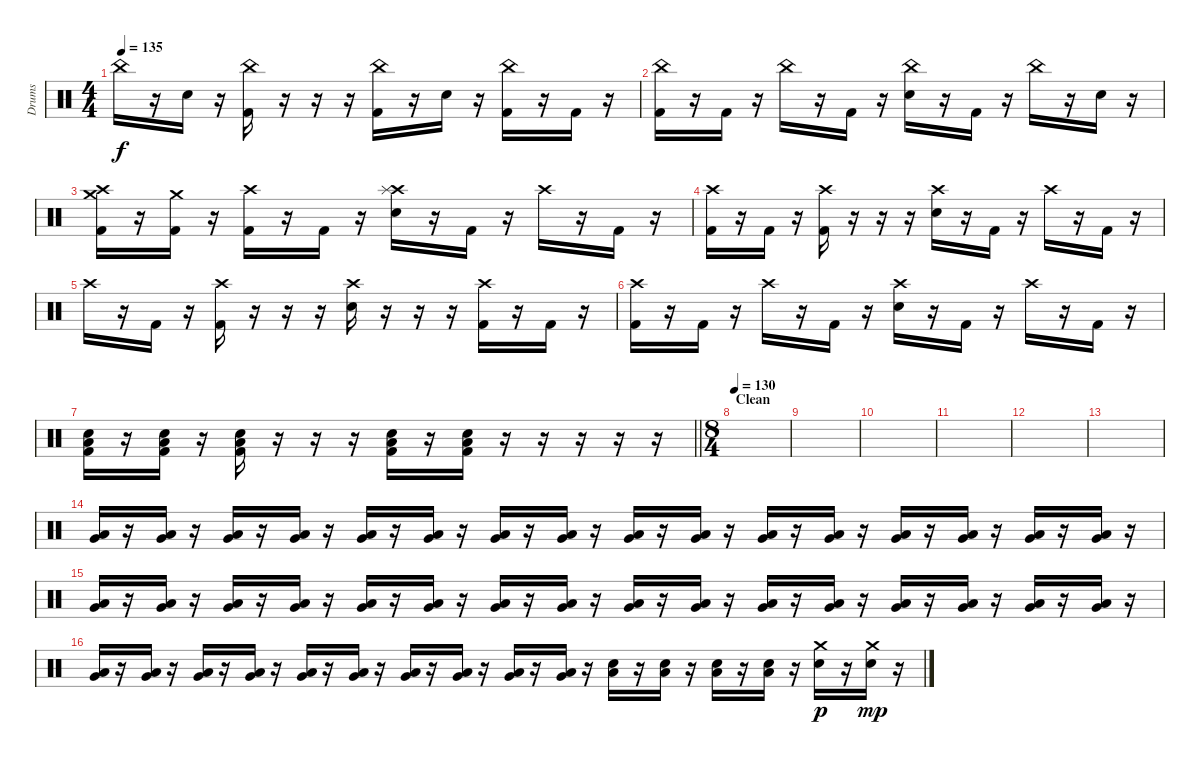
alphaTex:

\track ("Drums" "Drums") {instrument percussion}
\staff {score}
\articulation defaults
\ts (4 4)
\tempo 135
\clef neutral
\ks c "China (hit)".16{dy f}
r.16 "Snare (hit) 2".16 r.16 ("China (hit)" "Kick (hit) 2").16 r.16 r.16 r.16 ("China (hit)" "Kick (hit) 2").16 r.16 "Snare (hit) 2".16 r.16 ("China (hit)" "Kick (hit) 2").16 r.16 "Kick (hit) 2".16 r.16 |
("China (hit)" "Kick (hit) 2").16 r.16 "Kick (hit) 2".16 r.16 "China (hit)".16 r.16 "Kick (hit) 2".16 r.16 ("China (hit)" "Snare (hit) 2").16 r.16 "Kick (hit) 2".16 r.16 "China (hit)".16 r.16 "Snare (hit) 2".16 r.16 |
("Crash high (hit)" "Crash medium (hit)" "Kick (hit) 2").16 r.16 ("Crash medium (hit)" "Kick (hit) 2").16 r.16 ("Crash high (hit)" "Kick (hit) 2").16 r.16 "Kick (hit) 2".16 r.16 ("Crash high (hit)" "Splash (hit)" "Snare (hit) 2").16 r.16 "Kick (hit) 2".16 r.16 "Crash high (hit)".16 r.16 "Kick (hit) 2".16 r.16 |
("Crash high (hit)" "Kick (hit) 2").16 r.16 "Kick (hit) 2".16 r.16 ("Crash high (hit)" "Kick (hit) 2").16 r.16 r.16 r.16 ("Crash high (hit)" "Snare (hit) 2").16 r.16 "Kick (hit) 2".16 r.16 "Crash high (hit)".16 r.16 "Kick (hit) 2".16 r.16 |
"Crash high (hit)".16 r.16 "Kick (hit) 2".16 r.16 ("Crash high (hit)" "Kick (hit) 2").16 r.16 r.16 r.16 ("Crash high (hit)" "Snare (hit) 2").16 r.16 r.16 r.16 ("Crash high (hit)" "Kick (hit) 2").16 r.16 "Kick (hit) 2".16 r.16 |
("Crash high (hit)" "Kick (hit) 2").16 r.16 "Kick (hit) 2".16 r.16 "Crash high (hit)".16 r.16 "Kick (hit) 2".16 r.16 ("Crash high (hit)" "Snare (hit) 2").16 r.16 "Kick (hit) 2".16 r.16 "Crash high (hit)".16 r.16 "Kick (hit) 2".16 r.16 |
\barLineRight lightlight
("Low Floor Tom (hit)" "Snare (hit) 2" "Kick (hit) 2").16 r.16 ("Low Floor Tom (hit)" "Snare (hit) 2" "Kick (hit) 2").16 r.16 ("Low Floor Tom (hit)" "Snare (hit) 2" "Kick (hit) 2").16 r.16 r.16 r.16 ("Low Floor Tom (hit)" "Snare (hit) 2" "Kick (hit) 2").16 r.16 ("Low Floor Tom (hit)" "Snare (hit) 2" "Kick (hit) 2").16 r.16 r.16 r.16 r.16 r.16 |
\ts (8 4)
\section ("" "Clean")
\tempo 130
|
|
|
|
|
|
("Very Low Tom (hit)" "Low Floor Tom (hit)").16{volume 8} r.16 ("Very Low Tom (hit)" "Low Floor Tom (hit)").16 r.16 ("Very Low Tom (hit)" "Low Floor Tom (hit)").16 r.16 ("Very Low Tom (hit)" "Low Floor Tom (hit)").16 r.16 ("Very Low Tom (hit)" "Low Floor Tom (hit)").16 r.16 ("Very Low Tom (hit)" "Low Floor Tom (hit)").16 r.16 ("Very Low Tom (hit)" "Low Floor Tom (hit)").16 r.16 ("Very Low Tom (hit)" "Low Floor Tom (hit)").16 r.16 ("Very Low Tom (hit)" "Low Floor Tom (hit)").16 r.16 ("Very Low Tom (hit)" "Low Floor Tom (hit)").16 r.16 ("Very Low Tom (hit)" "Low Floor Tom (hit)").16 r.16 ("Very Low Tom (hit)" "Low Floor Tom (hit)").16 r.16 ("Very Low Tom (hit)" "Low Floor Tom (hit)").16 r.16 ("Very Low Tom (hit)" "Low Floor Tom (hit)").16 r.16 ("Very Low Tom (hit)" "Low Floor Tom (hit)").16 r.16 ("Very Low Tom (hit)" "Low Floor Tom (hit)").16 r.16 |
("Very Low Tom (hit)" "Low Floor Tom (hit)").16{volume 12} r.16 ("Very Low Tom (hit)" "Low Floor Tom (hit)").16 r.16 ("Very Low Tom (hit)" "Low Floor Tom (hit)").16 r.16 ("Very Low Tom (hit)" "Low Floor Tom (hit)").16 r.16 ("Very Low Tom (hit)" "Low Floor Tom (hit)").16 r.16 ("Very Low Tom (hit)" "Low Floor Tom (hit)").16 r.16 ("Very Low Tom (hit)" "Low Floor Tom (hit)").16 r.16 ("Very Low Tom (hit)" "Low Floor Tom (hit)").16 r.16 ("Very Low Tom (hit)" "Low Floor Tom (hit)").16 r.16 ("Very Low Tom (hit)" "Low Floor Tom (hit)").16 r.16 ("Very Low Tom (hit)" "Low Floor Tom (hit)").16 r.16 ("Very Low Tom (hit)" "Low Floor Tom (hit)").16 r.16 ("Very Low Tom (hit)" "Low Floor Tom (hit)").16 r.16 ("Very Low Tom (hit)" "Low Floor Tom (hit)").16 r.16 ("Very Low Tom (hit)" "Low Floor Tom (hit)").16 r.16 ("Very Low Tom (hit)" "Low Floor Tom (hit)").16 r.16 |
("Very Low Tom (hit)" "Low Floor Tom (hit)").16 r.16 ("Very Low Tom (hit)" "Low Floor Tom (hit)").16 r.16 ("Very Low Tom (hit)" "Low Floor Tom (hit)").16 r.16 ("Very Low Tom (hit)" "Low Floor Tom (hit)").16 r.16 ("Very Low Tom (hit)" "Low Floor Tom (hit)").16 r.16 ("Very Low Tom (hit)" "Low Floor Tom (hit)").16 r.16 ("Very Low Tom (hit)" "Low Floor Tom (hit)").16 r.16 ("Very Low Tom (hit)" "Low Floor Tom (hit)").16 r.16 ("Very Low Tom (hit)" "Low Floor Tom (hit)").16 r.16 ("Very Low Tom (hit)" "Low Floor Tom (hit)").16 r.16 ("Snare (hit) 2" "Low Floor Tom (hit)").16 r.16 ("Snare (hit) 2" "Low Floor Tom (hit)").16 r.16 ("Snare (hit) 2" "Low Floor Tom (hit)").16 r.16 ("Snare (hit) 2" "Low Floor Tom (hit)").16 r.16 ("Crash medium (hit)" "Snare (hit) 2").16{dy p} r.16 ("Crash medium (hit)" "Snare (hit) 2").16{dy mp} r.16
